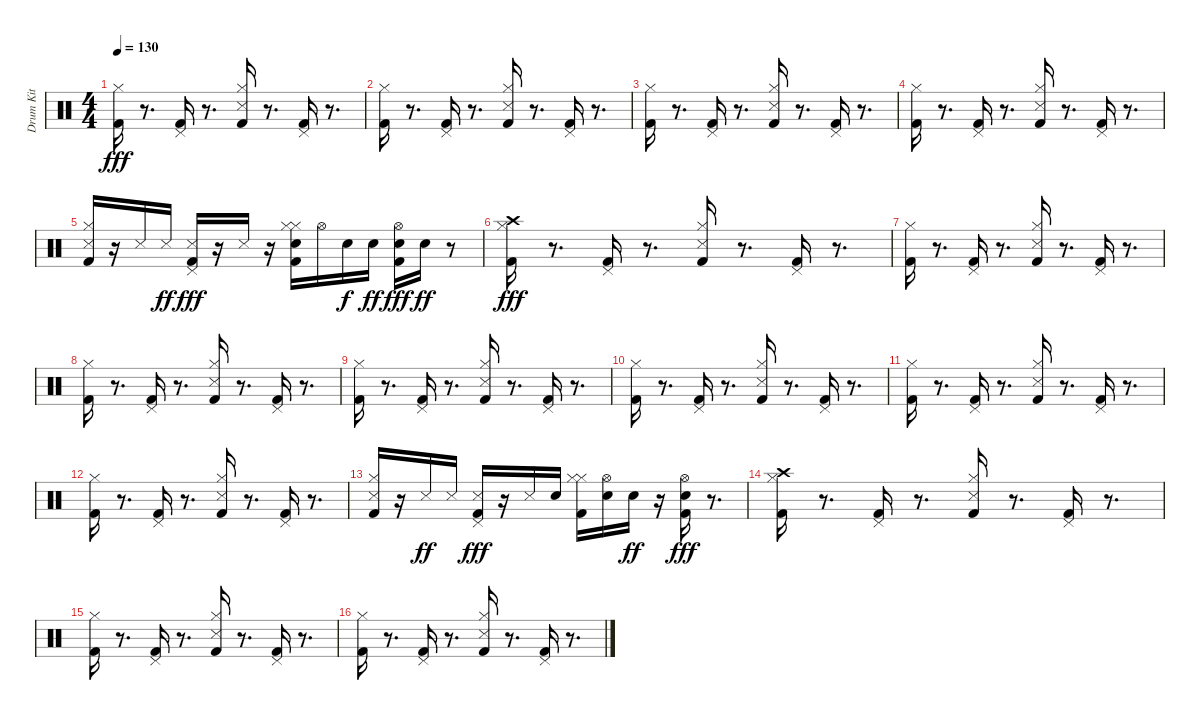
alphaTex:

\track ("Drum Kit" "Drum Kit") {instrument percussion}
\staff {score}
\articulation defaults
\ts (4 4)
\tempo 130
\clef neutral
\ks c
("Kick (hit) 2" "Hi-Hat (closed)").16{dy fff} r.8{d} ("Kick (hit) 2" "Pedal Hi-Hat (hit)").16 r.8{d} ("Kick (hit) 2" "Snare (side stick) 3" "Hi-Hat (closed)").16 r.8{d} ("Kick (hit) 2" "Pedal Hi-Hat (hit)").16 r.8{d} |
("Kick (hit) 2" "Hi-Hat (closed)").16 r.8{d} ("Kick (hit) 2" "Pedal Hi-Hat (hit)").16 r.8{d} ("Kick (hit) 2" "Snare (side stick) 3" "Hi-Hat (closed)").16 r.8{d} ("Kick (hit) 2" "Pedal Hi-Hat (hit)").16 r.8{d} |
("Kick (hit) 2" "Hi-Hat (closed)").16 r.8{d} ("Kick (hit) 2" "Pedal Hi-Hat (hit)").16 r.8{d} ("Kick (hit) 2" "Snare (side stick) 3" "Hi-Hat (closed)").16 r.8{d} ("Kick (hit) 2" "Pedal Hi-Hat (hit)").16 r.8{d} |
("Kick (hit) 2" "Hi-Hat (closed)").16 r.8{d} ("Kick (hit) 2" "Pedal Hi-Hat (hit)").16 r.8{d} ("Kick (hit) 2" "Snare (side stick) 3" "Hi-Hat (closed)").16 r.8{d} ("Kick (hit) 2" "Pedal Hi-Hat (hit)").16 r.8{d} |
("Kick (hit) 2" "Snare (side stick) 3" "Hi-Hat (closed)").16 r.16 "Snare (side stick) 3".16 "Snare (side stick) 3".16{dy ff} ("Kick (hit) 2" "Snare (side stick) 3" "Pedal Hi-Hat (hit)").16{dy fff} r.16 "Snare (side stick) 3".16 r.16 ("Kick (hit) 2" "Electric Snare (hit)" "Hi-Hat (closed)" "Hi-Hat (closed)").16 "Hi-Hat (open)".16 "Electric Snare (hit)".16{dy f} "Electric Snare (hit)".16{dy ff} ("Kick (hit) 2" "Electric Snare (hit)" "Hi-Hat (open)").16{dy fff} "Electric Snare (hit)".16{dy ff} r.8 |
("Kick (hit) 2" "Hi-Hat (closed)" "Crash high (hit)").16{dy fff} r.8{d} ("Kick (hit) 2" "Pedal Hi-Hat (hit)").16 r.8{d} ("Kick (hit) 2" "Snare (side stick) 3" "Hi-Hat (closed)").16 r.8{d} ("Kick (hit) 2" "Pedal Hi-Hat (hit)").16 r.8{d} |
("Kick (hit) 2" "Hi-Hat (closed)").16 r.8{d} ("Kick (hit) 2" "Pedal Hi-Hat (hit)").16 r.8{d} ("Kick (hit) 2" "Snare (side stick) 3" "Hi-Hat (closed)").16 r.8{d} ("Kick (hit) 2" "Pedal Hi-Hat (hit)").16 r.8{d} |
("Kick (hit) 2" "Hi-Hat (closed)").16 r.8{d} ("Kick (hit) 2" "Pedal Hi-Hat (hit)").16 r.8{d} ("Kick (hit) 2" "Snare (side stick) 3" "Hi-Hat (closed)").16 r.8{d} ("Kick (hit) 2" "Pedal Hi-Hat (hit)").16 r.8{d} |
("Kick (hit) 2" "Hi-Hat (closed)").16 r.8{d} ("Kick (hit) 2" "Pedal Hi-Hat (hit)").16 r.8{d} ("Kick (hit) 2" "Snare (side stick) 3" "Hi-Hat (closed)").16 r.8{d} ("Kick (hit) 2" "Pedal Hi-Hat (hit)").16 r.8{d} |
("Kick (hit) 2" "Hi-Hat (closed)").16 r.8{d} ("Kick (hit) 2" "Pedal Hi-Hat (hit)").16 r.8{d} ("Kick (hit) 2" "Snare (side stick) 3" "Hi-Hat (closed)").16 r.8{d} ("Kick (hit) 2" "Pedal Hi-Hat (hit)").16 r.8{d} |
("Kick (hit) 2" "Hi-Hat (closed)").16 r.8{d} ("Kick (hit) 2" "Pedal Hi-Hat (hit)").16 r.8{d} ("Kick (hit) 2" "Snare (side stick) 3" "Hi-Hat (closed)").16 r.8{d} ("Kick (hit) 2" "Pedal Hi-Hat (hit)").16 r.8{d} |
("Kick (hit) 2" "Hi-Hat (closed)").16 r.8{d} ("Kick (hit) 2" "Pedal Hi-Hat (hit)").16 r.8{d} ("Kick (hit) 2" "Snare (side stick) 3" "Hi-Hat (closed)").16 r.8{d} ("Kick (hit) 2" "Pedal Hi-Hat (hit)").16 r.8{d} |
("Kick (hit) 2" "Snare (side stick) 3" "Hi-Hat (closed)").16 r.16 "Snare (side stick) 3".16{dy ff} "Snare (side stick) 3".16 ("Kick (hit) 2" "Snare (side stick) 3" "Pedal Hi-Hat (hit)").16{dy fff} r.16 "Snare (side stick) 3".16 "Electric Snare (hit)".16 ("Kick (hit) 2" "Hi-Hat (closed)" "Hi-Hat (closed)").16 ("Electric Snare (hit)" "Hi-Hat (open)").16 "Electric Snare (hit)".16{dy ff} r.16 ("Kick (hit) 2" "Electric Snare (hit)" "Hi-Hat (open)").16{dy fff} r.8{d} |
("Kick (hit) 2" "Hi-Hat (closed)" "Crash high (hit)").16 r.8{d} ("Kick (hit) 2" "Pedal Hi-Hat (hit)").16 r.8{d} ("Kick (hit) 2" "Snare (side stick) 3" "Hi-Hat (closed)").16 r.8{d} ("Kick (hit) 2" "Pedal Hi-Hat (hit)").16 r.8{d} |
("Kick (hit) 2" "Hi-Hat (closed)").16 r.8{d} ("Kick (hit) 2" "Pedal Hi-Hat (hit)").16 r.8{d} ("Kick (hit) 2" "Snare (side stick) 3" "Hi-Hat (closed)").16 r.8{d} ("Kick (hit) 2" "Pedal Hi-Hat (hit)").16 r.8{d} |
("Kick (hit) 2" "Hi-Hat (closed)").16 r.8{d} ("Kick (hit) 2" "Pedal Hi-Hat (hit)").16 r.8{d} ("Kick (hit) 2" "Snare (side stick) 3" "Hi-Hat (closed)").16 r.8{d} ("Kick (hit) 2" "Pedal Hi-Hat (hit)").16 r.8{d}
